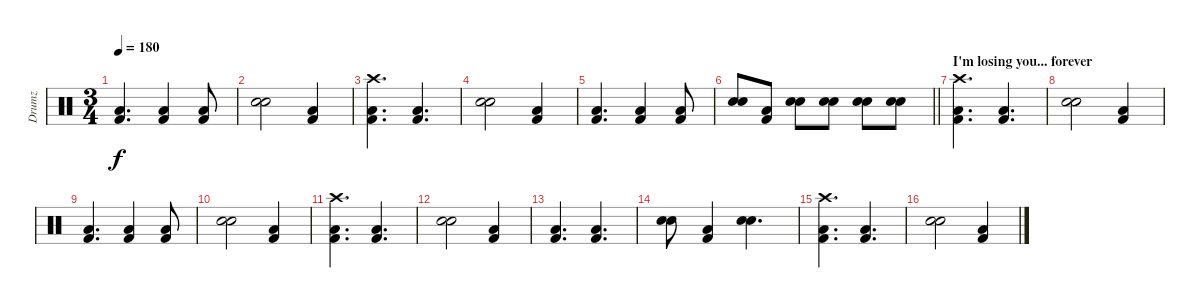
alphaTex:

\track ("Drumz" "Drumz") {instrument percussion}
\staff {score}
\articulation defaults
\ts (3 4)
\tempo 180
\clef neutral
\ks c
("Kick (hit) 2" "Low Floor Tom (hit)").4{d dy f} ("Kick (hit) 2" "Low Floor Tom (hit)").4 ("Kick (hit) 2" "Low Floor Tom (hit)").8 |
("Electric Snare (hit)" "Electric Snare (hit)").2 ("Kick (hit) 2" "Low Floor Tom (hit)").4 |
("Kick (hit) 2" "Low Floor Tom (hit)" "Crash high (hit)").4{d} ("Kick (hit) 2" "Low Floor Tom (hit)").4{d} |
("Electric Snare (hit)" "Electric Snare (hit)").2 ("Kick (hit) 2" "Low Floor Tom (hit)").4 |
("Kick (hit) 2" "Low Floor Tom (hit)").4{d} ("Kick (hit) 2" "Low Floor Tom (hit)").4 ("Kick (hit) 2" "Low Floor Tom (hit)").8 |
\barLineRight lightlight
("Electric Snare (hit)" "Electric Snare (hit)").8 ("Kick (hit) 2" "Low Floor Tom (hit)").8 ("Electric Snare (hit)" "Electric Snare (hit)").8 ("Electric Snare (hit)" "Electric Snare (hit)").8 ("Electric Snare (hit)" "Electric Snare (hit)").8 ("Electric Snare (hit)" "Electric Snare (hit)").8 |
\section ("" "I'm losing you... forever")
("Kick (hit) 2" "Low Floor Tom (hit)" "Crash high (hit)").4{d} ("Kick (hit) 2" "Low Floor Tom (hit)").4{d} |
("Electric Snare (hit)" "Electric Snare (hit)").2 ("Kick (hit) 2" "Low Floor Tom (hit)").4 |
("Kick (hit) 2" "Low Floor Tom (hit)").4{d} ("Kick (hit) 2" "Low Floor Tom (hit)").4 ("Kick (hit) 2" "Low Floor Tom (hit)").8 |
("Electric Snare (hit)" "Electric Snare (hit)").2 ("Kick (hit) 2" "Low Floor Tom (hit)").4 |
("Kick (hit) 2" "Low Floor Tom (hit)" "Crash high (hit)").4{d} ("Kick (hit) 2" "Low Floor Tom (hit)").4{d} |
("Electric Snare (hit)" "Electric Snare (hit)").2 ("Kick (hit) 2" "Low Floor Tom (hit)").4 |
("Kick (hit) 2" "Low Floor Tom (hit)").4{d} ("Kick (hit) 2" "Low Floor Tom (hit)").4{d} |
("Electric Snare (hit)" "Electric Snare (hit)").8 ("Kick (hit) 2" "Low Floor Tom (hit)").4 ("Electric Snare (hit)" "Electric Snare (hit)").4{d} |
("Kick (hit) 2" "Low Floor Tom (hit)" "Crash high (hit)").4{d} ("Kick (hit) 2" "Low Floor Tom (hit)").4{d} |
("Electric Snare (hit)" "Electric Snare (hit)").2 ("Kick (hit) 2" "Low Floor Tom (hit)").4
